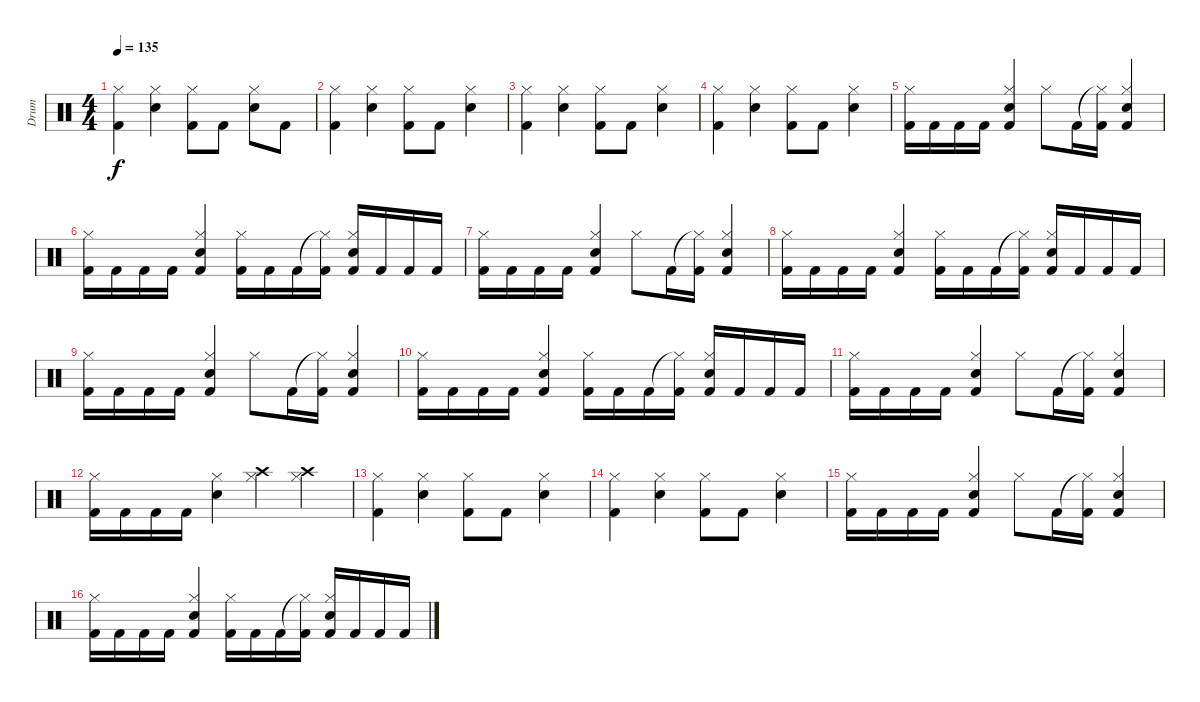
\track ("Drum" "Drum") {instrument percussion}
\staff {score}
\articulation defaults
\ts (4 4)
\tempo 135
\clef neutral
\ks c
("Kick (hit) 2" "Hi-Hat (closed)").4{dy f} ("Snare (hit) 2" "Hi-Hat (closed)").4 ("Kick (hit) 2" "Hi-Hat (closed)").8 "Kick (hit) 2".8 ("Snare (hit) 2" "Hi-Hat (closed)").8 "Kick (hit) 2".8 |
("Kick (hit) 2" "Hi-Hat (closed)").4 ("Snare (hit) 2" "Hi-Hat (closed)").4 ("Kick (hit) 2" "Hi-Hat (closed)").8 "Kick (hit) 2".8 ("Snare (hit) 2" "Hi-Hat (closed)").4 |
("Kick (hit) 2" "Hi-Hat (closed)").4 ("Snare (hit) 2" "Hi-Hat (closed)").4 ("Kick (hit) 2" "Hi-Hat (closed)").8 "Kick (hit) 2".8 ("Snare (hit) 2" "Hi-Hat (closed)").4 |
("Kick (hit) 2" "Hi-Hat (closed)").4 ("Snare (hit) 2" "Hi-Hat (closed)").4 ("Kick (hit) 2" "Hi-Hat (closed)").8 "Kick (hit) 2".8 ("Snare (hit) 2" "Hi-Hat (closed)").4 |
("Hi-Hat (closed)" "Kick (hit) 2").16 "Kick (hit) 2".16 "Kick (hit) 2".16 "Kick (hit) 2".16 ("Snare (hit) 2" "Hi-Hat (closed)" "Kick (hit) 2").4 "Hi-Hat (closed)".8 "Kick (hit) 2".16 ("Hi-Hat (closed)"{t} "Kick (hit) 2").16 ("Snare (hit) 2" "Hi-Hat (closed)" "Kick (hit) 2").4 |
("Hi-Hat (closed)" "Kick (hit) 2").16 "Kick (hit) 2".16 "Kick (hit) 2".16 "Kick (hit) 2".16 ("Snare (hit) 2" "Hi-Hat (closed)" "Kick (hit) 2").4 ("Hi-Hat (closed)" "Kick (hit) 2").16 "Kick (hit) 2".16 "Kick (hit) 2".16 ("Hi-Hat (closed)"{t} "Kick (hit) 2").16 ("Snare (hit) 2" "Hi-Hat (closed)" "Kick (hit) 2").16 "Kick (hit) 2".16 "Kick (hit) 2".16 "Kick (hit) 2".16 |
("Hi-Hat (closed)" "Kick (hit) 2").16 "Kick (hit) 2".16 "Kick (hit) 2".16 "Kick (hit) 2".16 ("Snare (hit) 2" "Hi-Hat (closed)" "Kick (hit) 2").4 "Hi-Hat (closed)".8 "Kick (hit) 2".16 ("Hi-Hat (closed)"{t} "Kick (hit) 2").16 ("Snare (hit) 2" "Hi-Hat (closed)" "Kick (hit) 2").4 |
("Hi-Hat (closed)" "Kick (hit) 2").16 "Kick (hit) 2".16 "Kick (hit) 2".16 "Kick (hit) 2".16 ("Snare (hit) 2" "Hi-Hat (closed)" "Kick (hit) 2").4 ("Hi-Hat (closed)" "Kick (hit) 2").16 "Kick (hit) 2".16 "Kick (hit) 2".16 ("Hi-Hat (closed)"{t} "Kick (hit) 2").16 ("Snare (hit) 2" "Hi-Hat (closed)" "Kick (hit) 2").16 "Kick (hit) 2".16 "Kick (hit) 2".16 "Kick (hit) 2".16 |
("Hi-Hat (closed)" "Kick (hit) 2").16 "Kick (hit) 2".16 "Kick (hit) 2".16 "Kick (hit) 2".16 ("Snare (hit) 2" "Hi-Hat (closed)" "Kick (hit) 2").4 "Hi-Hat (closed)".8 "Kick (hit) 2".16 ("Hi-Hat (closed)"{t} "Kick (hit) 2").16 ("Snare (hit) 2" "Hi-Hat (closed)" "Kick (hit) 2").4 |
("Hi-Hat (closed)" "Kick (hit) 2").16 "Kick (hit) 2".16 "Kick (hit) 2".16 "Kick (hit) 2".16 ("Snare (hit) 2" "Hi-Hat (closed)" "Kick (hit) 2").4 ("Hi-Hat (closed)" "Kick (hit) 2").16 "Kick (hit) 2".16 "Kick (hit) 2".16 ("Hi-Hat (closed)"{t} "Kick (hit) 2").16 ("Snare (hit) 2" "Hi-Hat (closed)" "Kick (hit) 2").16 "Kick (hit) 2".16 "Kick (hit) 2".16 "Kick (hit) 2".16 |
("Hi-Hat (closed)" "Kick (hit) 2").16 "Kick (hit) 2".16 "Kick (hit) 2".16 "Kick (hit) 2".16 ("Snare (hit) 2" "Hi-Hat (closed)" "Kick (hit) 2").4 "Hi-Hat (closed)".8 "Kick (hit) 2".16 ("Hi-Hat (closed)"{t} "Kick (hit) 2").16 ("Snare (hit) 2" "Hi-Hat (closed)" "Kick (hit) 2").4 |
("Hi-Hat (closed)" "Kick (hit) 2").16 "Kick (hit) 2".16 "Kick (hit) 2".16 "Kick (hit) 2".16 ("Snare (hit) 2" "Hi-Hat (closed)").4 ("Crash high (hit)" "Hi-Hat (closed)").4 ("Crash high (hit)" "Hi-Hat (closed)").4 |
("Kick (hit) 2" "Hi-Hat (closed)").4 ("Snare (hit) 2" "Hi-Hat (closed)").4 ("Kick (hit) 2" "Hi-Hat (closed)").8 "Kick (hit) 2".8 ("Snare (hit) 2" "Hi-Hat (closed)").4 |
("Kick (hit) 2" "Hi-Hat (closed)").4 ("Snare (hit) 2" "Hi-Hat (closed)").4 ("Kick (hit) 2" "Hi-Hat (closed)").8 "Kick (hit) 2".8 ("Snare (hit) 2" "Hi-Hat (closed)").4 |
("Hi-Hat (closed)" "Kick (hit) 2").16 "Kick (hit) 2".16 "Kick (hit) 2".16 "Kick (hit) 2".16 ("Snare (hit) 2" "Hi-Hat (closed)" "Kick (hit) 2").4 "Hi-Hat (closed)".8 "Kick (hit) 2".16 ("Hi-Hat (closed)"{t} "Kick (hit) 2").16 ("Snare (hit) 2" "Hi-Hat (closed)" "Kick (hit) 2").4 |
("Hi-Hat (closed)" "Kick (hit) 2").16 "Kick (hit) 2".16 "Kick (hit) 2".16 "Kick (hit) 2".16 ("Snare (hit) 2" "Hi-Hat (closed)" "Kick (hit) 2").4 ("Hi-Hat (closed)" "Kick (hit) 2").16 "Kick (hit) 2".16 "Kick (hit) 2".16 ("Hi-Hat (closed)"{t} "Kick (hit) 2").16 ("Snare (hit) 2" "Hi-Hat (closed)" "Kick (hit) 2").16 "Kick (hit) 2".16 "Kick (hit) 2".16 "Kick (hit) 2".16
